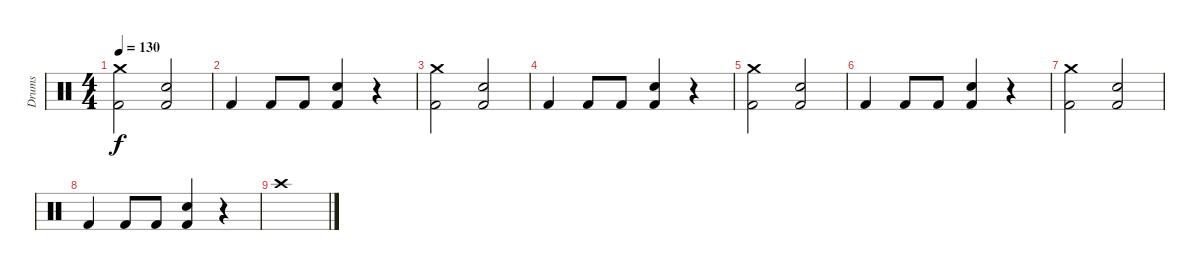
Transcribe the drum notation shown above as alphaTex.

\track ("Drums" "Drums") {instrument percussion}
\staff {score}
\articulation defaults
\ts (4 4)
\tempo 130
\clef neutral
\ks c
("Crash medium (hit)" "Kick (hit) 2").2{dy f} ("Kick (hit) 2" "Snare (hit) 2").2 |
"Kick (hit) 2".4 "Kick (hit) 2".8 "Kick (hit) 2".8 ("Kick (hit) 2" "Snare (hit) 2").4 r.4 |
("Crash medium (hit)" "Kick (hit) 2").2 ("Kick (hit) 2" "Snare (hit) 2").2 |
"Kick (hit) 2".4 "Kick (hit) 2".8 "Kick (hit) 2".8 ("Kick (hit) 2" "Snare (hit) 2").4 r.4 |
("Crash medium (hit)" "Kick (hit) 2").2 ("Kick (hit) 2" "Snare (hit) 2").2 |
"Kick (hit) 2".4 "Kick (hit) 2".8 "Kick (hit) 2".8 ("Kick (hit) 2" "Snare (hit) 2").4 r.4 |
("Crash medium (hit)" "Kick (hit) 2").2 ("Kick (hit) 2" "Snare (hit) 2").2 |
"Kick (hit) 2".4 "Kick (hit) 2".8 "Kick (hit) 2".8 ("Kick (hit) 2" "Snare (hit) 2").4 r.4 |
"Crash high (hit)".1
